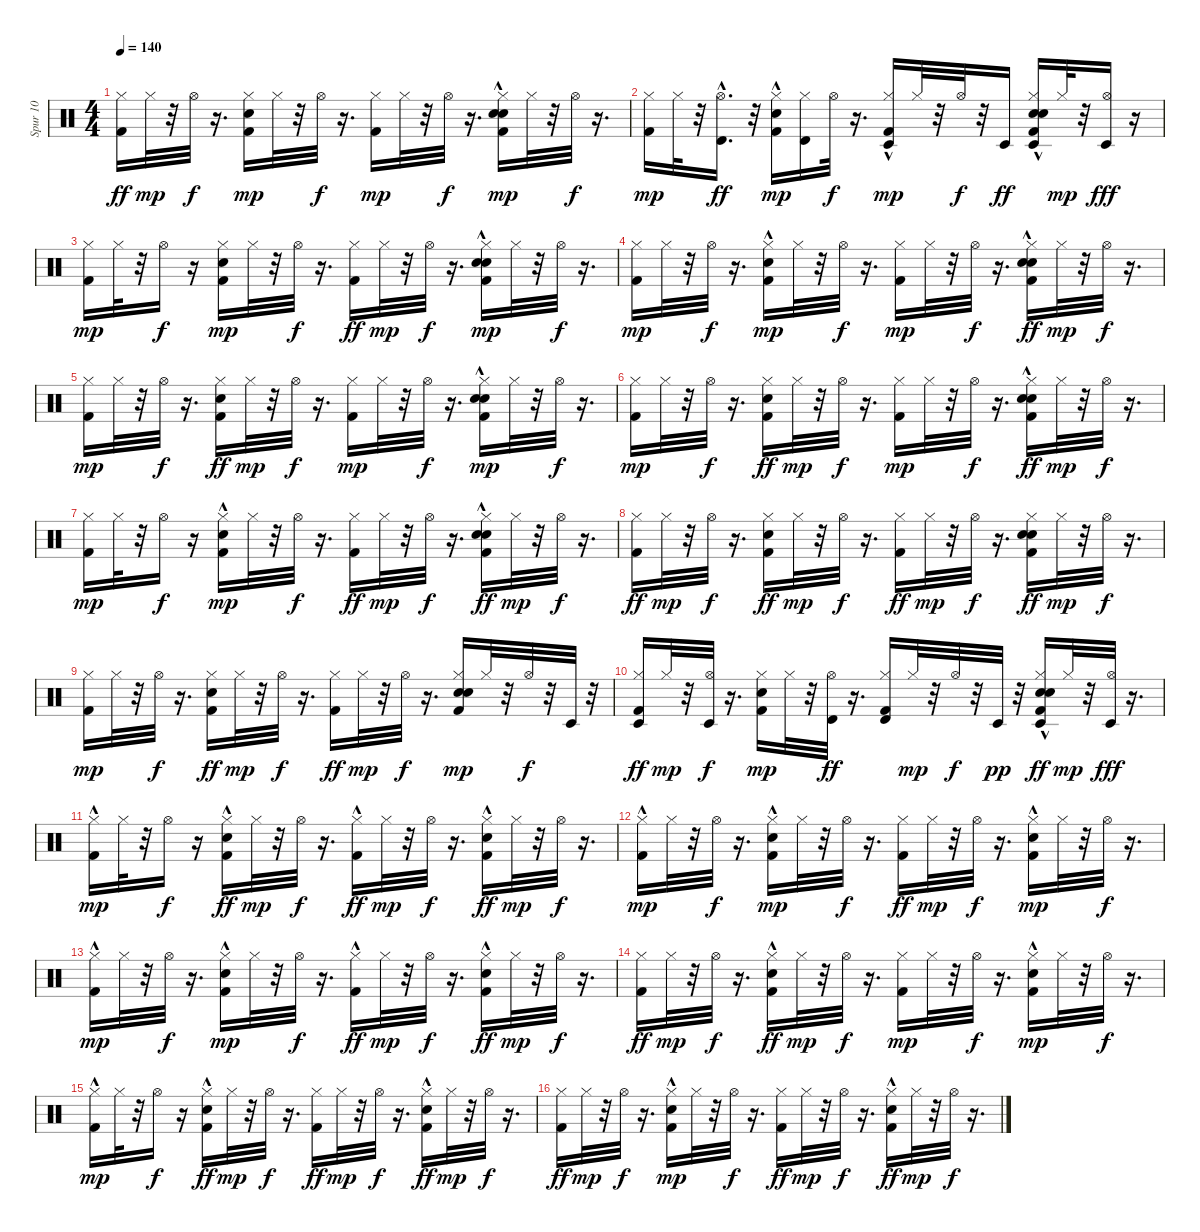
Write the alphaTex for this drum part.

\track ("Spur 10" "Spur 10") {instrument percussion}
\staff {score}
\articulation defaults
\ts (4 4)
\tempo 140
\clef neutral
\ks c
("Hi-Hat (closed)" "Kick (hit) 2").16{dy ff} "Hi-Hat (closed)".32{dy mp} r.32 "Hi-Hat (open)".32{dy f} r.16{d} ("Kick (hit) 2" "Electric Snare (hit)" "Hi-Hat (closed)").16{dy mp} "Hi-Hat (closed)".32 r.32 "Hi-Hat (open)".32{dy f} r.16{d} ("Kick (hit) 2" "Hi-Hat (closed)").16{dy mp} "Hi-Hat (closed)".32 r.32 "Hi-Hat (open)".32{dy f} r.16{d} ("Kick (hit) 2" "Hi-Hat (closed)" "Snare (hit) 2" "Electric Snare (hit)"{hac}).16{dy mp} "Hi-Hat (closed)".32 r.32 "Hi-Hat (open)".32{dy f} r.16{d} |
("Kick (hit) 2" "Hi-Hat (closed)").16{dy mp} "Hi-Hat (closed)".32 r.32 ("Hi-Hat (open)" "Timbale high (hit)"{hac}).16{d dy ff} r.32 ("Electric Snare (hit)"{hac} "Kick (hit) 2" "Hi-Hat (closed)").16{dy mp} ("Timbale high (hit)" "Hi-Hat (closed)").16 "Hi-Hat (open)".32{dy f} r.16{d} ("Kick (hit) 2" "Timbale low (hit)"{hac} "Hi-Hat (closed)").16{dy mp} "Hi-Hat (closed)".32 r.32 "Hi-Hat (open)".32{dy f} r.32 "Timbale low (hit)".16{dy ff} ("Snare (hit) 2" "Electric Snare (hit)"{hac} "Hi-Hat (closed)" "Timbale low (hit)" "Kick (hit) 2").16 "Hi-Hat (closed)".32{dy mp} r.32 ("Timbale low (hit)" "Hi-Hat (open)").16{dy fff} r.16 |
("Kick (hit) 2" "Hi-Hat (closed)").16{dy mp} "Hi-Hat (closed)".32 r.32 "Hi-Hat (open)".16{dy f} r.16 ("Kick (hit) 2" "Hi-Hat (closed)" "Electric Snare (hit)").16{dy mp} "Hi-Hat (closed)".32 r.32 "Hi-Hat (open)".32{dy f} r.16{d} ("Hi-Hat (closed)" "Kick (hit) 2").16{dy ff} "Hi-Hat (closed)".32{dy mp} r.32 "Hi-Hat (open)".32{dy f} r.16{d} ("Electric Snare (hit)"{hac} "Snare (hit) 2" "Kick (hit) 2" "Hi-Hat (closed)").16{dy mp} "Hi-Hat (closed)".32 r.32 "Hi-Hat (open)".32{dy f} r.16{d} |
("Kick (hit) 2" "Hi-Hat (closed)").16{dy mp} "Hi-Hat (closed)".32 r.32 "Hi-Hat (open)".32{dy f} r.16{d} ("Electric Snare (hit)"{hac} "Kick (hit) 2" "Hi-Hat (closed)").16{dy mp} "Hi-Hat (closed)".32 r.32 "Hi-Hat (open)".32{dy f} r.16{d} ("Kick (hit) 2" "Hi-Hat (closed)").16{dy mp} "Hi-Hat (closed)".32 r.32 "Hi-Hat (open)".32{dy f} r.16{d} ("Electric Snare (hit)"{hac} "Hi-Hat (closed)" "Kick (hit) 2" "Snare (hit) 2"{hac}).16{dy ff} "Hi-Hat (closed)".32{dy mp} r.32 "Hi-Hat (open)".32{dy f} r.16{d} |
("Kick (hit) 2" "Hi-Hat (closed)").16{dy mp} "Hi-Hat (closed)".32 r.32 "Hi-Hat (open)".32{dy f} r.16{d} ("Hi-Hat (closed)" "Electric Snare (hit)" "Kick (hit) 2").16{dy ff} "Hi-Hat (closed)".32{dy mp} r.32 "Hi-Hat (open)".32{dy f} r.16{d} ("Kick (hit) 2" "Hi-Hat (closed)").16{dy mp} "Hi-Hat (closed)".32 r.32 "Hi-Hat (open)".32{dy f} r.16{d} ("Electric Snare (hit)"{hac} "Snare (hit) 2"{hac} "Kick (hit) 2" "Hi-Hat (closed)").16{dy mp} "Hi-Hat (closed)".32 r.32 "Hi-Hat (open)".32{dy f} r.16{d} |
("Kick (hit) 2" "Hi-Hat (closed)").16{dy mp} "Hi-Hat (closed)".32 r.32 "Hi-Hat (open)".32{dy f} r.16{d} ("Hi-Hat (closed)" "Electric Snare (hit)" "Kick (hit) 2").16{dy ff} "Hi-Hat (closed)".32{dy mp} r.32 "Hi-Hat (open)".32{dy f} r.16{d} ("Kick (hit) 2" "Hi-Hat (closed)").16{dy mp} "Hi-Hat (closed)".32 r.32 "Hi-Hat (open)".32{dy f} r.16{d} ("Electric Snare (hit)"{hac} "Snare (hit) 2" "Hi-Hat (closed)" "Kick (hit) 2").16{dy ff} "Hi-Hat (closed)".32{dy mp} r.32 "Hi-Hat (open)".32{dy f} r.16{d} |
("Kick (hit) 2" "Hi-Hat (closed)").16{dy mp} "Hi-Hat (closed)".32 r.32 "Hi-Hat (open)".16{dy f} r.16 ("Kick (hit) 2" "Electric Snare (hit)"{hac} "Hi-Hat (closed)").16{dy mp} "Hi-Hat (closed)".32 r.32 "Hi-Hat (open)".32{dy f} r.16{d} ("Hi-Hat (closed)" "Kick (hit) 2").16{dy ff} "Hi-Hat (closed)".32{dy mp} r.32 "Hi-Hat (open)".32{dy f} r.16{d} ("Hi-Hat (closed)" "Kick (hit) 2" "Snare (hit) 2"{hac} "Electric Snare (hit)").16{dy ff} "Hi-Hat (closed)".32{dy mp} r.32 "Hi-Hat (open)".32{dy f} r.16{d} |
("Hi-Hat (closed)" "Kick (hit) 2").16{dy ff} "Hi-Hat (closed)".32{dy mp} r.32 "Hi-Hat (open)".32{dy f} r.16{d} ("Hi-Hat (closed)" "Kick (hit) 2" "Electric Snare (hit)").16{dy ff} "Hi-Hat (closed)".32{dy mp} r.32 "Hi-Hat (open)".32{dy f} r.16{d} ("Hi-Hat (closed)" "Kick (hit) 2").16{dy ff} "Hi-Hat (closed)".32{dy mp} r.32 "Hi-Hat (open)".32{dy f} r.16{d} ("Hi-Hat (closed)" "Kick (hit) 2" "Snare (hit) 2" "Electric Snare (hit)").16{dy ff} "Hi-Hat (closed)".32{dy mp} r.32 "Hi-Hat (open)".32{dy f} r.16{d} |
("Kick (hit) 2" "Hi-Hat (closed)").16{dy mp} "Hi-Hat (closed)".32 r.32 "Hi-Hat (open)".32{dy f} r.16{d} ("Electric Snare (hit)" "Hi-Hat (closed)" "Kick (hit) 2").16{dy ff} "Hi-Hat (closed)".32{dy mp} r.32 "Hi-Hat (open)".32{dy f} r.16{d} ("Hi-Hat (closed)" "Kick (hit) 2").16{dy ff} "Hi-Hat (closed)".32{dy mp} r.32 "Hi-Hat (open)".32{dy f} r.16{d} ("Snare (hit) 2" "Kick (hit) 2" "Electric Snare (hit)" "Hi-Hat (closed)").16{dy mp} "Hi-Hat (closed)".32 r.32 "Hi-Hat (open)".32{dy f} r.32 "Timbale low (hit)".32 r.32 |
("Timbale low (hit)" "Hi-Hat (closed)" "Kick (hit) 2").16{dy ff} "Hi-Hat (closed)".32{dy mp} r.32 ("Hi-Hat (open)" "Timbale low (hit)").32{dy f} r.16{d} ("Electric Snare (hit)" "Kick (hit) 2" "Hi-Hat (closed)").16{dy mp} "Hi-Hat (closed)".32 r.32 ("Timbale high (hit)" "Hi-Hat (open)").32{dy ff} r.16{d} ("Kick (hit) 2" "Hi-Hat (closed)" "Timbale high (hit)").16 "Hi-Hat (closed)".32{dy mp} r.32 "Hi-Hat (open)".32{dy f} r.32 "Timbale low (hit)".32{dy pp} r.32 ("Timbale low (hit)" "Electric Snare (hit)"{hac} "Hi-Hat (closed)" "Kick (hit) 2" "Snare (hit) 2").16{dy ff} "Hi-Hat (closed)".32{dy mp} r.32 ("Hi-Hat (open)" "Timbale low (hit)").32{dy fff} r.16{d} |
("Kick (hit) 2"{hac} "Hi-Hat (closed)").16{dy mp} "Hi-Hat (closed)".32 r.32 "Hi-Hat (open)".16{dy f} r.16 ("Hi-Hat (closed)" "Electric Snare (hit)"{hac} "Kick (hit) 2"{hac}).16{dy ff} "Hi-Hat (closed)".32{dy mp} r.32 "Hi-Hat (open)".32{dy f} r.16{d} ("Hi-Hat (closed)" "Kick (hit) 2"{hac}).16{dy ff} "Hi-Hat (closed)".32{dy mp} r.32 "Hi-Hat (open)".32{dy f} r.16{d} ("Electric Snare (hit)" "Hi-Hat (closed)" "Kick (hit) 2"{hac}).16{dy ff} "Hi-Hat (closed)".32{dy mp} r.32 "Hi-Hat (open)".32{dy f} r.16{d} |
("Kick (hit) 2"{hac} "Hi-Hat (closed)").16{dy mp} "Hi-Hat (closed)".32 r.32 "Hi-Hat (open)".32{dy f} r.16{d} ("Kick (hit) 2"{hac} "Electric Snare (hit)"{hac} "Hi-Hat (closed)").16{dy mp} "Hi-Hat (closed)".32 r.32 "Hi-Hat (open)".32{dy f} r.16{d} ("Hi-Hat (closed)" "Kick (hit) 2").16{dy ff} "Hi-Hat (closed)".32{dy mp} r.32 "Hi-Hat (open)".32{dy f} r.16{d} ("Electric Snare (hit)"{hac} "Kick (hit) 2"{hac} "Hi-Hat (closed)").16{dy mp} "Hi-Hat (closed)".32 r.32 "Hi-Hat (open)".32{dy f} r.16{d} |
("Kick (hit) 2"{hac} "Hi-Hat (closed)").16{dy mp} "Hi-Hat (closed)".32 r.32 "Hi-Hat (open)".32{dy f} r.16{d} ("Kick (hit) 2"{hac} "Electric Snare (hit)" "Hi-Hat (closed)").16{dy mp} "Hi-Hat (closed)".32 r.32 "Hi-Hat (open)".32{dy f} r.16{d} ("Hi-Hat (closed)" "Kick (hit) 2"{hac}).16{dy ff} "Hi-Hat (closed)".32{dy mp} r.32 "Hi-Hat (open)".32{dy f} r.16{d} ("Hi-Hat (closed)" "Kick (hit) 2" "Electric Snare (hit)"{hac}).16{dy ff} "Hi-Hat (closed)".32{dy mp} r.32 "Hi-Hat (open)".32{dy f} r.16{d} |
("Hi-Hat (closed)" "Kick (hit) 2").16{dy ff} "Hi-Hat (closed)".32{dy mp} r.32 "Hi-Hat (open)".32{dy f} r.16{d} ("Electric Snare (hit)"{hac} "Hi-Hat (closed)" "Kick (hit) 2").16{dy ff} "Hi-Hat (closed)".32{dy mp} r.32 "Hi-Hat (open)".32{dy f} r.16{d} ("Kick (hit) 2" "Hi-Hat (closed)").16{dy mp} "Hi-Hat (closed)".32 r.32 "Hi-Hat (open)".32{dy f} r.16{d} ("Electric Snare (hit)"{hac} "Kick (hit) 2"{hac} "Hi-Hat (closed)").16{dy mp} "Hi-Hat (closed)".32 r.32 "Hi-Hat (open)".32{dy f} r.16{d} |
("Kick (hit) 2"{hac} "Hi-Hat (closed)").16{dy mp} "Hi-Hat (closed)".32 r.32 "Hi-Hat (open)".16{dy f} r.16 ("Hi-Hat (closed)" "Kick (hit) 2"{hac} "Electric Snare (hit)"{hac}).16{dy ff} "Hi-Hat (closed)".32{dy mp} r.32 "Hi-Hat (open)".32{dy f} r.16{d} ("Hi-Hat (closed)" "Kick (hit) 2").16{dy ff} "Hi-Hat (closed)".32{dy mp} r.32 "Hi-Hat (open)".32{dy f} r.16{d} ("Electric Snare (hit)"{hac} "Hi-Hat (closed)" "Kick (hit) 2"{hac}).16{dy ff} "Hi-Hat (closed)".32{dy mp} r.32 "Hi-Hat (open)".32{dy f} r.16{d} |
("Hi-Hat (closed)" "Kick (hit) 2").16{dy ff} "Hi-Hat (closed)".32{dy mp} r.32 "Hi-Hat (open)".32{dy f} r.16{d} ("Electric Snare (hit)"{hac} "Kick (hit) 2" "Hi-Hat (closed)").16{dy mp} "Hi-Hat (closed)".32 r.32 "Hi-Hat (open)".32{dy f} r.16{d} ("Hi-Hat (closed)" "Kick (hit) 2").16{dy ff} "Hi-Hat (closed)".32{dy mp} r.32 "Hi-Hat (open)".32{dy f} r.16{d} ("Hi-Hat (closed)" "Electric Snare (hit)"{hac} "Kick (hit) 2").16{dy ff} "Hi-Hat (closed)".32{dy mp} r.32 "Hi-Hat (open)".32{dy f} r.16{d}
